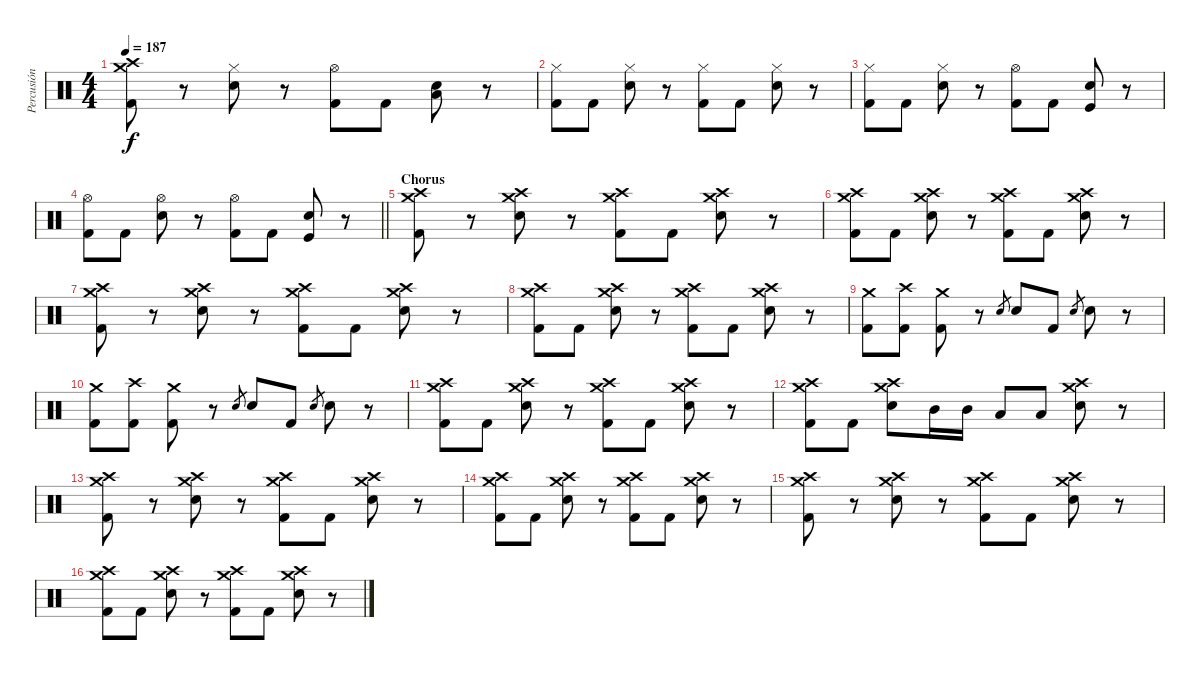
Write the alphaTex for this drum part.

\track ("Percusión" "Percusión") {instrument percussion}
\staff {score}
\articulation defaults
\ts (4 4)
\tempo 187
\clef neutral
\ks c
("Crash high (hit)" "Crash medium (hit)" "Kick (hit) 2").8{dy f} r.8 ("Hi-Hat (closed)" "Snare (hit) 2").8 r.8 ("Hi-Hat (open)" "Kick (hit) 2").8 "Kick (hit) 2".8 ("Snare (hit) 2" "Low Tom (hit)").8 r.8 |
("Hi-Hat (closed)" "Kick (hit) 2").8 "Kick (hit) 2".8 ("Hi-Hat (closed)" "Snare (hit) 2").8 r.8 ("Hi-Hat (closed)" "Kick (hit) 2").8 "Kick (hit) 2".8 ("Hi-Hat (closed)" "Snare (hit) 2").8 r.8 |
("Hi-Hat (closed)" "Kick (hit) 2").8 "Kick (hit) 2".8 ("Hi-Hat (closed)" "Snare (hit) 2").8 r.8 ("Hi-Hat (open)" "Kick (hit) 2").8 "Kick (hit) 2".8 ("Snare (hit) 2" "Kick (hit)").8 r.8 |
\barLineRight lightlight
("Hi-Hat (open)" "Kick (hit) 2").8 "Kick (hit) 2".8 ("Hi-Hat (open)" "Snare (hit) 2").8 r.8 ("Hi-Hat (open)" "Kick (hit) 2").8 "Kick (hit) 2".8 ("Snare (hit) 2" "Kick (hit)").8 r.8 |
\section ("" "Chorus")
("Crash high (hit)" "Crash medium (hit)" "Kick (hit) 2").8 r.8 ("Crash high (hit)" "Crash medium (hit)" "Snare (hit) 2").8 r.8 ("Crash high (hit)" "Crash medium (hit)" "Kick (hit) 2").8 "Kick (hit) 2".8 ("Crash high (hit)" "Crash medium (hit)" "Snare (hit) 2").8 r.8 |
("Crash high (hit)" "Crash medium (hit)" "Kick (hit) 2").8 "Kick (hit) 2".8 ("Crash high (hit)" "Crash medium (hit)" "Snare (hit) 2").8 r.8 ("Crash high (hit)" "Crash medium (hit)" "Kick (hit) 2").8 "Kick (hit) 2".8 ("Crash high (hit)" "Crash medium (hit)" "Snare (hit) 2").8 r.8 |
("Crash high (hit)" "Crash medium (hit)" "Kick (hit) 2").8 r.8 ("Crash high (hit)" "Crash medium (hit)" "Snare (hit) 2").8 r.8 ("Crash high (hit)" "Crash medium (hit)" "Kick (hit) 2").8 "Kick (hit) 2".8 ("Crash high (hit)" "Crash medium (hit)" "Snare (hit) 2").8 r.8 |
("Crash high (hit)" "Crash medium (hit)" "Kick (hit) 2").8 "Kick (hit) 2".8 ("Crash high (hit)" "Crash medium (hit)" "Snare (hit) 2").8 r.8 ("Crash high (hit)" "Crash medium (hit)" "Kick (hit) 2").8 "Kick (hit) 2".8 ("Crash high (hit)" "Crash medium (hit)" "Snare (hit) 2").8 r.8 |
("Crash medium (hit)" "Kick (hit) 2").8 ("Crash high (hit)" "Kick (hit) 2").8 ("Crash medium (hit)" "Kick (hit) 2").8 r.8 "Snare (hit) 2".8{gr} "Snare (hit) 2".8 "Kick (hit) 2".8 "Snare (hit) 2".8{gr} "Snare (hit) 2".8 r.8 |
("Crash medium (hit)" "Kick (hit) 2").8 ("Crash high (hit)" "Kick (hit) 2").8 ("Crash medium (hit)" "Kick (hit) 2").8 r.8 "Snare (hit) 2".8{gr} "Snare (hit) 2".8 "Kick (hit) 2".8 "Snare (hit) 2".8{gr} "Snare (hit) 2".8 r.8 |
("Crash high (hit)" "Crash medium (hit)" "Kick (hit) 2").8 "Kick (hit) 2".8 ("Crash high (hit)" "Crash medium (hit)" "Snare (hit) 2").8 r.8 ("Crash high (hit)" "Crash medium (hit)" "Kick (hit) 2").8 "Kick (hit) 2".8 ("Crash high (hit)" "Crash medium (hit)" "Snare (hit) 2").8 r.8 |
("Crash high (hit)" "Crash medium (hit)" "Kick (hit) 2").8 "Kick (hit) 2".8 ("Crash high (hit)" "Crash medium (hit)" "Snare (hit) 2").8 "Mid Tom (hit)".16 "Mid Tom (hit)".16 "Low Tom (hit)".8 "Low Tom (hit)".8 ("Crash high (hit)" "Crash medium (hit)" "Snare (hit) 2").8 r.8 |
("Crash high (hit)" "Crash medium (hit)" "Kick (hit) 2").8 r.8 ("Crash high (hit)" "Crash medium (hit)" "Snare (hit) 2").8 r.8 ("Crash high (hit)" "Crash medium (hit)" "Kick (hit) 2").8 "Kick (hit) 2".8 ("Crash high (hit)" "Crash medium (hit)" "Snare (hit) 2").8 r.8 |
("Crash high (hit)" "Crash medium (hit)" "Kick (hit) 2").8 "Kick (hit) 2".8 ("Crash high (hit)" "Crash medium (hit)" "Snare (hit) 2").8 r.8 ("Crash high (hit)" "Crash medium (hit)" "Kick (hit) 2").8 "Kick (hit) 2".8 ("Crash high (hit)" "Crash medium (hit)" "Snare (hit) 2").8 r.8 |
("Crash high (hit)" "Crash medium (hit)" "Kick (hit) 2").8 r.8 ("Crash high (hit)" "Crash medium (hit)" "Snare (hit) 2").8 r.8 ("Crash high (hit)" "Crash medium (hit)" "Kick (hit) 2").8 "Kick (hit) 2".8 ("Crash high (hit)" "Crash medium (hit)" "Snare (hit) 2").8 r.8 |
("Crash high (hit)" "Crash medium (hit)" "Kick (hit) 2").8 "Kick (hit) 2".8 ("Crash high (hit)" "Crash medium (hit)" "Snare (hit) 2").8 r.8 ("Crash high (hit)" "Crash medium (hit)" "Kick (hit) 2").8 "Kick (hit) 2".8 ("Crash high (hit)" "Crash medium (hit)" "Snare (hit) 2").8 r.8
